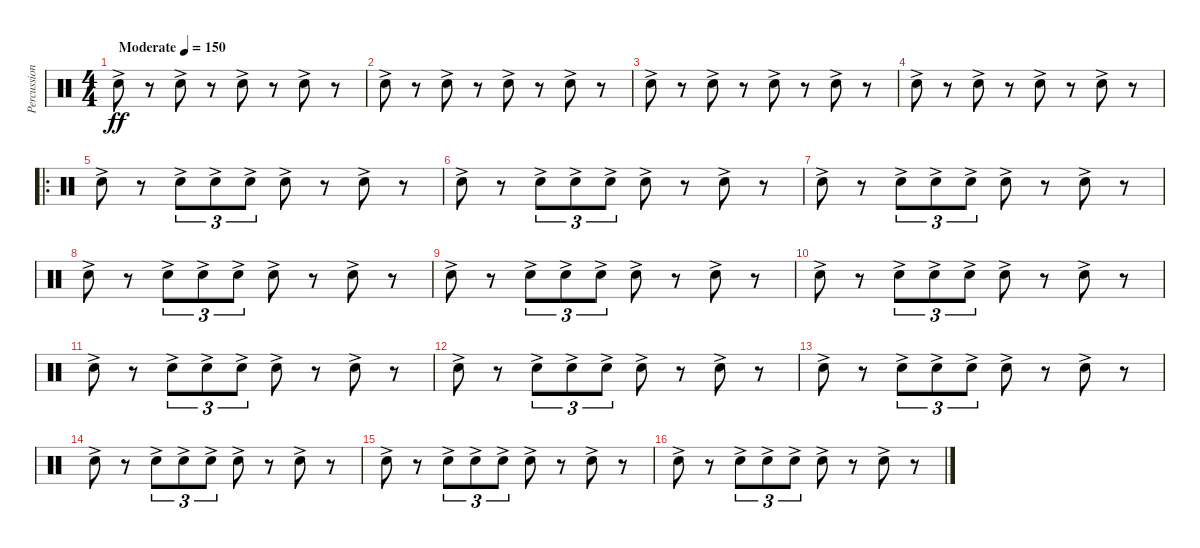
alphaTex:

\track ("Percussion" "Percussion") {instrument percussion}
\staff {score}
\articulation defaults
\ts (4 4)
\tempo (150 "Moderate")
\clef neutral
\ks c "Snare (hit) 2"{ac}.8{dy ff}
r.8 "Snare (hit) 2"{ac}.8 r.8 "Snare (hit) 2"{ac}.8 r.8 "Snare (hit) 2"{ac}.8 r.8 |
"Snare (hit) 2"{ac}.8 r.8 "Snare (hit) 2"{ac}.8 r.8 "Snare (hit) 2"{ac}.8 r.8 "Snare (hit) 2"{ac}.8 r.8 |
"Snare (hit) 2"{ac}.8 r.8 "Snare (hit) 2"{ac}.8 r.8 "Snare (hit) 2"{ac}.8 r.8 "Snare (hit) 2"{ac}.8 r.8 |
"Snare (hit) 2"{ac}.8 r.8 "Snare (hit) 2"{ac}.8 r.8 "Snare (hit) 2"{ac}.8 r.8 "Snare (hit) 2"{ac}.8 r.8 |
\ro "Snare (hit) 2"{ac}.8
r.8 "Snare (hit) 2"{ac}.8{tu (3 2)} "Snare (hit) 2"{ac}.8{tu (3 2)} "Snare (hit) 2"{ac}.8{tu (3 2)} "Snare (hit) 2"{ac}.8 r.8 "Snare (hit) 2"{ac}.8 r.8 |
"Snare (hit) 2"{ac}.8 r.8 "Snare (hit) 2"{ac}.8{tu (3 2)} "Snare (hit) 2"{ac}.8{tu (3 2)} "Snare (hit) 2"{ac}.8{tu (3 2)} "Snare (hit) 2"{ac}.8 r.8 "Snare (hit) 2"{ac}.8 r.8 |
"Snare (hit) 2"{ac}.8 r.8 "Snare (hit) 2"{ac}.8{tu (3 2)} "Snare (hit) 2"{ac}.8{tu (3 2)} "Snare (hit) 2"{ac}.8{tu (3 2)} "Snare (hit) 2"{ac}.8 r.8 "Snare (hit) 2"{ac}.8 r.8 |
"Snare (hit) 2"{ac}.8 r.8 "Snare (hit) 2"{ac}.8{tu (3 2)} "Snare (hit) 2"{ac}.8{tu (3 2)} "Snare (hit) 2"{ac}.8{tu (3 2)} "Snare (hit) 2"{ac}.8 r.8 "Snare (hit) 2"{ac}.8 r.8 |
"Snare (hit) 2"{ac}.8 r.8 "Snare (hit) 2"{ac}.8{tu (3 2)} "Snare (hit) 2"{ac}.8{tu (3 2)} "Snare (hit) 2"{ac}.8{tu (3 2)} "Snare (hit) 2"{ac}.8 r.8 "Snare (hit) 2"{ac}.8 r.8 |
"Snare (hit) 2"{ac}.8 r.8 "Snare (hit) 2"{ac}.8{tu (3 2)} "Snare (hit) 2"{ac}.8{tu (3 2)} "Snare (hit) 2"{ac}.8{tu (3 2)} "Snare (hit) 2"{ac}.8 r.8 "Snare (hit) 2"{ac}.8 r.8 |
"Snare (hit) 2"{ac}.8 r.8 "Snare (hit) 2"{ac}.8{tu (3 2)} "Snare (hit) 2"{ac}.8{tu (3 2)} "Snare (hit) 2"{ac}.8{tu (3 2)} "Snare (hit) 2"{ac}.8 r.8 "Snare (hit) 2"{ac}.8 r.8 |
"Snare (hit) 2"{ac}.8 r.8 "Snare (hit) 2"{ac}.8{tu (3 2)} "Snare (hit) 2"{ac}.8{tu (3 2)} "Snare (hit) 2"{ac}.8{tu (3 2)} "Snare (hit) 2"{ac}.8 r.8 "Snare (hit) 2"{ac}.8 r.8 |
"Snare (hit) 2"{ac}.8 r.8 "Snare (hit) 2"{ac}.8{tu (3 2)} "Snare (hit) 2"{ac}.8{tu (3 2)} "Snare (hit) 2"{ac}.8{tu (3 2)} "Snare (hit) 2"{ac}.8 r.8 "Snare (hit) 2"{ac}.8 r.8 |
"Snare (hit) 2"{ac}.8 r.8 "Snare (hit) 2"{ac}.8{tu (3 2)} "Snare (hit) 2"{ac}.8{tu (3 2)} "Snare (hit) 2"{ac}.8{tu (3 2)} "Snare (hit) 2"{ac}.8 r.8 "Snare (hit) 2"{ac}.8 r.8 |
"Snare (hit) 2"{ac}.8 r.8 "Snare (hit) 2"{ac}.8{tu (3 2)} "Snare (hit) 2"{ac}.8{tu (3 2)} "Snare (hit) 2"{ac}.8{tu (3 2)} "Snare (hit) 2"{ac}.8 r.8 "Snare (hit) 2"{ac}.8 r.8 |
"Snare (hit) 2"{ac}.8 r.8 "Snare (hit) 2"{ac}.8{tu (3 2)} "Snare (hit) 2"{ac}.8{tu (3 2)} "Snare (hit) 2"{ac}.8{tu (3 2)} "Snare (hit) 2"{ac}.8 r.8 "Snare (hit) 2"{ac}.8 r.8
